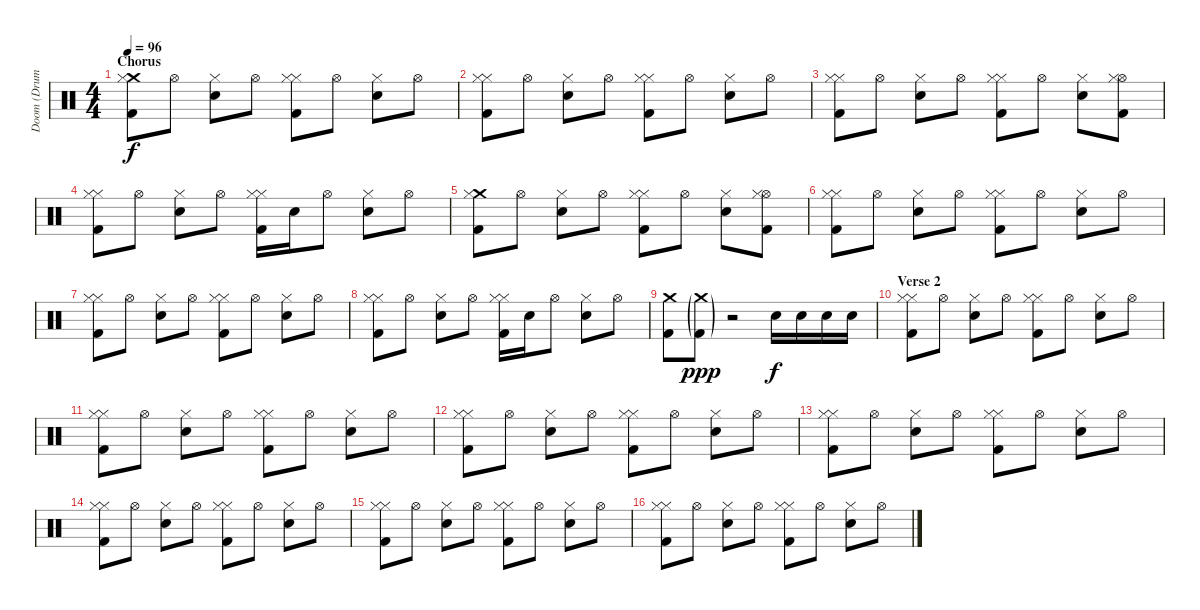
\track ("Doom (Drums)" "Doom (Drum") {instrument percussion}
\staff {score}
\articulation defaults
\ts (4 4)
\section ("" "Chorus")
\tempo 96
\clef neutral
\ks c
("Crash medium (hit)" "Hi-Hat (closed)" "Kick (hit) 2").8{dy f} "Hi-Hat (open)".8 ("Hi-Hat (closed)" "Electric Snare (hit)").8 "Hi-Hat (open)".8 ("Hi-Hat (closed)" "Hi-Hat (closed)" "Kick (hit) 2").8 "Hi-Hat (open)".8 ("Hi-Hat (closed)" "Electric Snare (hit)").8 "Hi-Hat (open)".8 |
("Hi-Hat (closed)" "Hi-Hat (closed)" "Kick (hit) 2").8 "Hi-Hat (open)".8 ("Hi-Hat (closed)" "Electric Snare (hit)").8 "Hi-Hat (open)".8 ("Hi-Hat (closed)" "Hi-Hat (closed)" "Kick (hit) 2").8 "Hi-Hat (open)".8 ("Hi-Hat (closed)" "Electric Snare (hit)").8 "Hi-Hat (open)".8 |
("Hi-Hat (closed)" "Hi-Hat (closed)" "Kick (hit) 2").8 "Hi-Hat (open)".8 ("Hi-Hat (closed)" "Electric Snare (hit)").8 "Hi-Hat (open)".8 ("Hi-Hat (closed)" "Hi-Hat (closed)" "Kick (hit) 2").8 "Hi-Hat (open)".8 ("Hi-Hat (closed)" "Electric Snare (hit)").8 ("Hi-Hat (open)" "Hi-Hat (closed)" "Kick (hit) 2").8 |
("Hi-Hat (closed)" "Hi-Hat (closed)" "Kick (hit) 2").8 "Hi-Hat (open)".8 ("Hi-Hat (closed)" "Electric Snare (hit)").8 "Hi-Hat (open)".8 ("Hi-Hat (closed)" "Hi-Hat (closed)" "Kick (hit) 2").16 "Electric Snare (hit)".16 "Hi-Hat (open)".8 ("Hi-Hat (closed)" "Electric Snare (hit)").8 "Hi-Hat (open)".8 |
("Crash medium (hit)" "Hi-Hat (closed)" "Kick (hit) 2").8 "Hi-Hat (open)".8 ("Hi-Hat (closed)" "Electric Snare (hit)").8 "Hi-Hat (open)".8 ("Hi-Hat (closed)" "Hi-Hat (closed)" "Kick (hit) 2").8 "Hi-Hat (open)".8 ("Hi-Hat (closed)" "Electric Snare (hit)").8 ("Hi-Hat (open)" "Hi-Hat (closed)" "Kick (hit) 2").8 |
("Hi-Hat (closed)" "Hi-Hat (closed)" "Kick (hit) 2").8 "Hi-Hat (open)".8 ("Hi-Hat (closed)" "Electric Snare (hit)").8 "Hi-Hat (open)".8 ("Hi-Hat (closed)" "Hi-Hat (closed)" "Kick (hit) 2").8 "Hi-Hat (open)".8 ("Hi-Hat (closed)" "Electric Snare (hit)").8 "Hi-Hat (open)".8 |
("Hi-Hat (closed)" "Hi-Hat (closed)" "Kick (hit) 2").8 "Hi-Hat (open)".8 ("Hi-Hat (closed)" "Electric Snare (hit)").8 "Hi-Hat (open)".8 ("Hi-Hat (closed)" "Hi-Hat (closed)" "Kick (hit) 2").8 "Hi-Hat (open)".8 ("Hi-Hat (closed)" "Electric Snare (hit)").8 "Hi-Hat (open)".8 |
("Hi-Hat (closed)" "Hi-Hat (closed)" "Kick (hit) 2").8 "Hi-Hat (open)".8 ("Hi-Hat (closed)" "Electric Snare (hit)").8 "Hi-Hat (open)".8 ("Hi-Hat (closed)" "Hi-Hat (closed)" "Kick (hit) 2").16 "Electric Snare (hit)".16 "Hi-Hat (open)".8 ("Hi-Hat (closed)" "Electric Snare (hit)").8 "Hi-Hat (open)".8 |
("Crash medium (hit)" "Kick (hit) 2").8 ("Crash medium (hit)"{g x} "Kick (hit) 2"{g x}).8{dy ppp} r.2 "Electric Snare (hit)".16{dy f} "Electric Snare (hit)".16 "Electric Snare (hit)".16 "Electric Snare (hit)".16 |
\section ("" "Verse 2")
("Hi-Hat (closed)" "Hi-Hat (closed)" "Kick (hit) 2").8 "Hi-Hat (open)".8 ("Hi-Hat (closed)" "Electric Snare (hit)").8 "Hi-Hat (open)".8 ("Hi-Hat (closed)" "Hi-Hat (closed)" "Kick (hit) 2").8 "Hi-Hat (open)".8 ("Hi-Hat (closed)" "Electric Snare (hit)").8 "Hi-Hat (open)".8 |
("Hi-Hat (closed)" "Hi-Hat (closed)" "Kick (hit) 2").8 "Hi-Hat (open)".8 ("Hi-Hat (closed)" "Electric Snare (hit)").8 "Hi-Hat (open)".8 ("Hi-Hat (closed)" "Hi-Hat (closed)" "Kick (hit) 2").8 "Hi-Hat (open)".8 ("Hi-Hat (closed)" "Electric Snare (hit)").8 "Hi-Hat (open)".8 |
("Hi-Hat (closed)" "Hi-Hat (closed)" "Kick (hit) 2").8 "Hi-Hat (open)".8 ("Hi-Hat (closed)" "Electric Snare (hit)").8 "Hi-Hat (open)".8 ("Hi-Hat (closed)" "Hi-Hat (closed)" "Kick (hit) 2").8 "Hi-Hat (open)".8 ("Hi-Hat (closed)" "Electric Snare (hit)").8 "Hi-Hat (open)".8 |
("Hi-Hat (closed)" "Hi-Hat (closed)" "Kick (hit) 2").8 "Hi-Hat (open)".8 ("Hi-Hat (closed)" "Electric Snare (hit)").8 "Hi-Hat (open)".8 ("Hi-Hat (closed)" "Hi-Hat (closed)" "Kick (hit) 2").8 "Hi-Hat (open)".8 ("Hi-Hat (closed)" "Electric Snare (hit)").8 "Hi-Hat (open)".8 |
("Hi-Hat (closed)" "Hi-Hat (closed)" "Kick (hit) 2").8 "Hi-Hat (open)".8 ("Hi-Hat (closed)" "Electric Snare (hit)").8 "Hi-Hat (open)".8 ("Hi-Hat (closed)" "Hi-Hat (closed)" "Kick (hit) 2").8 "Hi-Hat (open)".8 ("Hi-Hat (closed)" "Electric Snare (hit)").8 "Hi-Hat (open)".8 |
("Hi-Hat (closed)" "Hi-Hat (closed)" "Kick (hit) 2").8 "Hi-Hat (open)".8 ("Hi-Hat (closed)" "Electric Snare (hit)").8 "Hi-Hat (open)".8 ("Hi-Hat (closed)" "Hi-Hat (closed)" "Kick (hit) 2").8 "Hi-Hat (open)".8 ("Hi-Hat (closed)" "Electric Snare (hit)").8 "Hi-Hat (open)".8 |
("Hi-Hat (closed)" "Hi-Hat (closed)" "Kick (hit) 2").8 "Hi-Hat (open)".8 ("Hi-Hat (closed)" "Electric Snare (hit)").8 "Hi-Hat (open)".8 ("Hi-Hat (closed)" "Hi-Hat (closed)" "Kick (hit) 2").8 "Hi-Hat (open)".8 ("Hi-Hat (closed)" "Electric Snare (hit)").8 "Hi-Hat (open)".8
